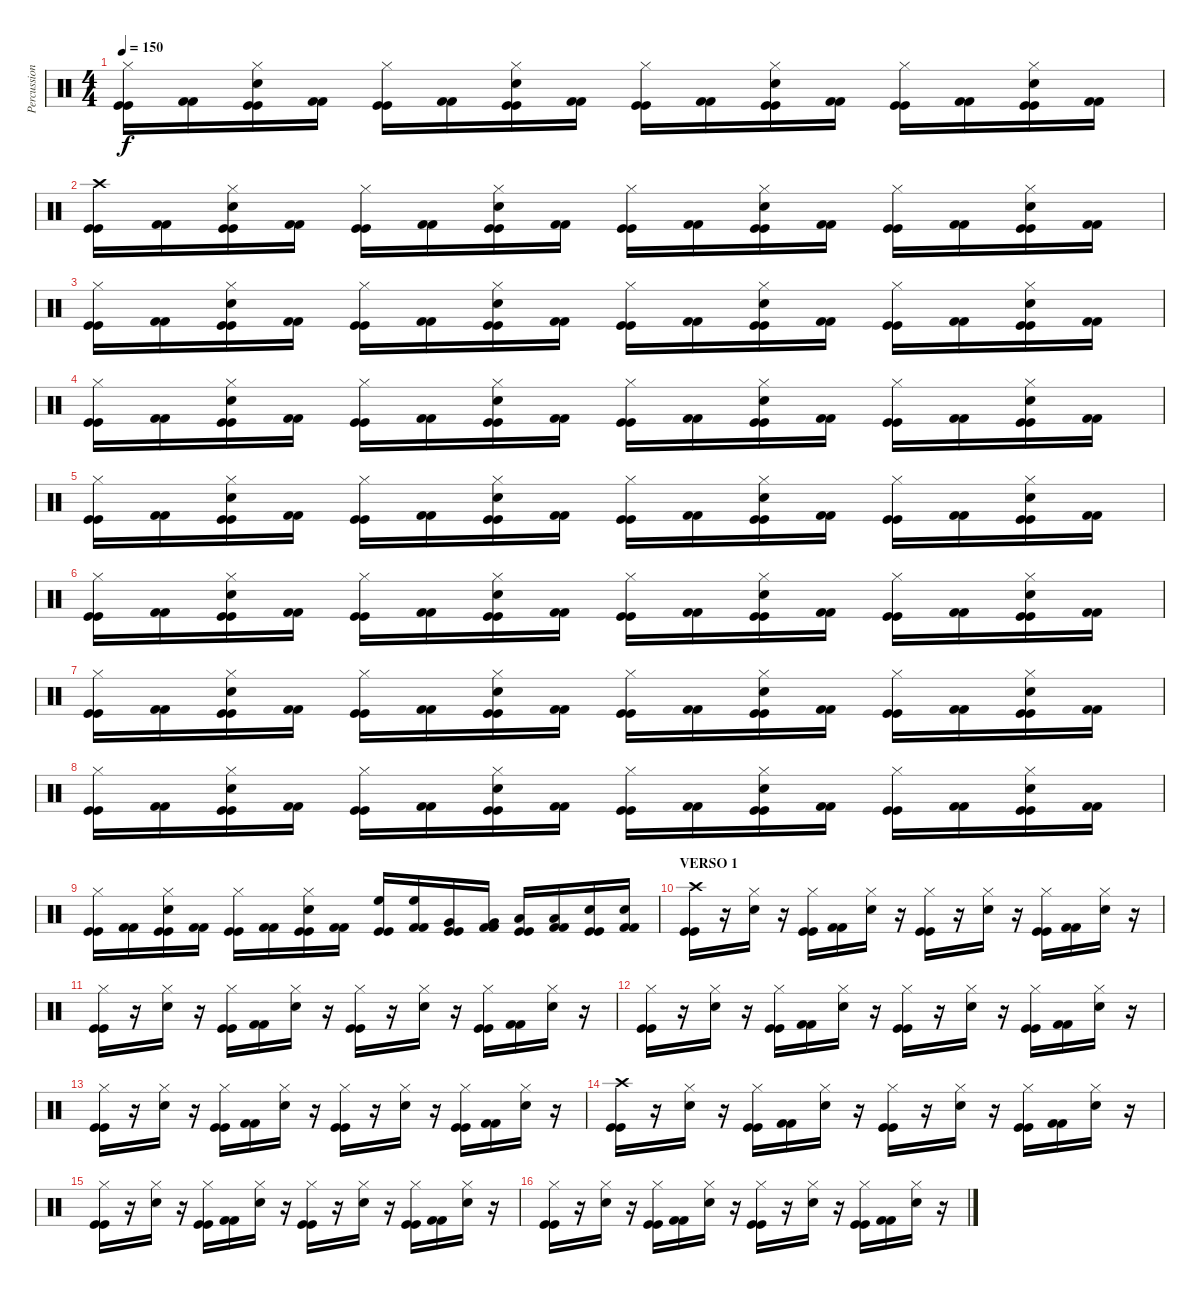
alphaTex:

\track ("Percussion" "Percussion") {instrument percussion}
\staff {score}
\articulation defaults
\ts (4 4)
\tempo 150
\clef neutral
\ks c
("Hi-Hat (closed)" "Kick (hit)" "Kick (hit)").16{dy f} ("Kick (hit) 2" "Kick (hit) 2").16 ("Hi-Hat (closed)" "Electric Snare (hit)" "Kick (hit)" "Kick (hit)").16 ("Kick (hit) 2" "Kick (hit) 2").16 ("Hi-Hat (closed)" "Kick (hit)" "Kick (hit)").16 ("Kick (hit) 2" "Kick (hit) 2").16 ("Hi-Hat (closed)" "Electric Snare (hit)" "Kick (hit)" "Kick (hit)").16 ("Kick (hit) 2" "Kick (hit) 2").16 ("Hi-Hat (closed)" "Kick (hit)" "Kick (hit)").16 ("Kick (hit) 2" "Kick (hit) 2").16 ("Hi-Hat (closed)" "Electric Snare (hit)" "Kick (hit)" "Kick (hit)").16 ("Kick (hit) 2" "Kick (hit) 2").16 ("Hi-Hat (closed)" "Kick (hit)" "Kick (hit)").16 ("Kick (hit) 2" "Kick (hit) 2").16 ("Hi-Hat (closed)" "Electric Snare (hit)" "Kick (hit)" "Kick (hit)").16 ("Kick (hit) 2" "Kick (hit) 2").16 |
("Crash high (hit)" "Kick (hit)" "Kick (hit)").16 ("Kick (hit) 2" "Kick (hit) 2").16 ("Hi-Hat (closed)" "Electric Snare (hit)" "Kick (hit)" "Kick (hit)").16 ("Kick (hit) 2" "Kick (hit) 2").16 ("Hi-Hat (closed)" "Kick (hit)" "Kick (hit)").16 ("Kick (hit) 2" "Kick (hit) 2").16 ("Hi-Hat (closed)" "Electric Snare (hit)" "Kick (hit)" "Kick (hit)").16 ("Kick (hit) 2" "Kick (hit) 2").16 ("Hi-Hat (closed)" "Kick (hit)" "Kick (hit)").16 ("Kick (hit) 2" "Kick (hit) 2").16 ("Hi-Hat (closed)" "Electric Snare (hit)" "Kick (hit)" "Kick (hit)").16 ("Kick (hit) 2" "Kick (hit) 2").16 ("Hi-Hat (closed)" "Kick (hit)" "Kick (hit)").16 ("Kick (hit) 2" "Kick (hit) 2").16 ("Hi-Hat (closed)" "Electric Snare (hit)" "Kick (hit)" "Kick (hit)").16 ("Kick (hit) 2" "Kick (hit) 2").16 |
("Hi-Hat (closed)" "Kick (hit)" "Kick (hit)").16 ("Kick (hit) 2" "Kick (hit) 2").16 ("Hi-Hat (closed)" "Electric Snare (hit)" "Kick (hit)" "Kick (hit)").16 ("Kick (hit) 2" "Kick (hit) 2").16 ("Hi-Hat (closed)" "Kick (hit)" "Kick (hit)").16 ("Kick (hit) 2" "Kick (hit) 2").16 ("Hi-Hat (closed)" "Electric Snare (hit)" "Kick (hit)" "Kick (hit)").16 ("Kick (hit) 2" "Kick (hit) 2").16 ("Hi-Hat (closed)" "Kick (hit)" "Kick (hit)").16 ("Kick (hit) 2" "Kick (hit) 2").16 ("Hi-Hat (closed)" "Electric Snare (hit)" "Kick (hit)" "Kick (hit)").16 ("Kick (hit) 2" "Kick (hit) 2").16 ("Hi-Hat (closed)" "Kick (hit)" "Kick (hit)").16 ("Kick (hit) 2" "Kick (hit) 2").16 ("Hi-Hat (closed)" "Electric Snare (hit)" "Kick (hit)" "Kick (hit)").16 ("Kick (hit) 2" "Kick (hit) 2").16 |
("Hi-Hat (closed)" "Kick (hit)" "Kick (hit)").16 ("Kick (hit) 2" "Kick (hit) 2").16 ("Hi-Hat (closed)" "Electric Snare (hit)" "Kick (hit)" "Kick (hit)").16 ("Kick (hit) 2" "Kick (hit) 2").16 ("Hi-Hat (closed)" "Kick (hit)" "Kick (hit)").16 ("Kick (hit) 2" "Kick (hit) 2").16 ("Hi-Hat (closed)" "Electric Snare (hit)" "Kick (hit)" "Kick (hit)").16 ("Kick (hit) 2" "Kick (hit) 2").16 ("Hi-Hat (closed)" "Kick (hit)" "Kick (hit)").16 ("Kick (hit) 2" "Kick (hit) 2").16 ("Hi-Hat (closed)" "Electric Snare (hit)" "Kick (hit)" "Kick (hit)").16 ("Kick (hit) 2" "Kick (hit) 2").16 ("Hi-Hat (closed)" "Kick (hit)" "Kick (hit)").16 ("Kick (hit) 2" "Kick (hit) 2").16 ("Hi-Hat (closed)" "Electric Snare (hit)" "Kick (hit)" "Kick (hit)").16 ("Kick (hit) 2" "Kick (hit) 2").16 |
("Hi-Hat (closed)" "Kick (hit)" "Kick (hit)").16 ("Kick (hit) 2" "Kick (hit) 2").16 ("Hi-Hat (closed)" "Electric Snare (hit)" "Kick (hit)" "Kick (hit)").16 ("Kick (hit) 2" "Kick (hit) 2").16 ("Hi-Hat (closed)" "Kick (hit)" "Kick (hit)").16 ("Kick (hit) 2" "Kick (hit) 2").16 ("Hi-Hat (closed)" "Electric Snare (hit)" "Kick (hit)" "Kick (hit)").16 ("Kick (hit) 2" "Kick (hit) 2").16 ("Hi-Hat (closed)" "Kick (hit)" "Kick (hit)").16 ("Kick (hit) 2" "Kick (hit) 2").16 ("Hi-Hat (closed)" "Electric Snare (hit)" "Kick (hit)" "Kick (hit)").16 ("Kick (hit) 2" "Kick (hit) 2").16 ("Hi-Hat (closed)" "Kick (hit)" "Kick (hit)").16 ("Kick (hit) 2" "Kick (hit) 2").16 ("Hi-Hat (closed)" "Electric Snare (hit)" "Kick (hit)" "Kick (hit)").16 ("Kick (hit) 2" "Kick (hit) 2").16 |
("Hi-Hat (closed)" "Kick (hit)" "Kick (hit)").16 ("Kick (hit) 2" "Kick (hit) 2").16 ("Hi-Hat (closed)" "Electric Snare (hit)" "Kick (hit)" "Kick (hit)").16 ("Kick (hit) 2" "Kick (hit) 2").16 ("Hi-Hat (closed)" "Kick (hit)" "Kick (hit)").16 ("Kick (hit) 2" "Kick (hit) 2").16 ("Hi-Hat (closed)" "Electric Snare (hit)" "Kick (hit)" "Kick (hit)").16 ("Kick (hit) 2" "Kick (hit) 2").16 ("Hi-Hat (closed)" "Kick (hit)" "Kick (hit)").16 ("Kick (hit) 2" "Kick (hit) 2").16 ("Hi-Hat (closed)" "Electric Snare (hit)" "Kick (hit)" "Kick (hit)").16 ("Kick (hit) 2" "Kick (hit) 2").16 ("Hi-Hat (closed)" "Kick (hit)" "Kick (hit)").16 ("Kick (hit) 2" "Kick (hit) 2").16 ("Hi-Hat (closed)" "Electric Snare (hit)" "Kick (hit)" "Kick (hit)").16 ("Kick (hit) 2" "Kick (hit) 2").16 |
("Hi-Hat (closed)" "Kick (hit)" "Kick (hit)").16 ("Kick (hit) 2" "Kick (hit) 2").16 ("Hi-Hat (closed)" "Electric Snare (hit)" "Kick (hit)" "Kick (hit)").16 ("Kick (hit) 2" "Kick (hit) 2").16 ("Hi-Hat (closed)" "Kick (hit)" "Kick (hit)").16 ("Kick (hit) 2" "Kick (hit) 2").16 ("Hi-Hat (closed)" "Electric Snare (hit)" "Kick (hit)" "Kick (hit)").16 ("Kick (hit) 2" "Kick (hit) 2").16 ("Hi-Hat (closed)" "Kick (hit)" "Kick (hit)").16 ("Kick (hit) 2" "Kick (hit) 2").16 ("Hi-Hat (closed)" "Electric Snare (hit)" "Kick (hit)" "Kick (hit)").16 ("Kick (hit) 2" "Kick (hit) 2").16 ("Hi-Hat (closed)" "Kick (hit)" "Kick (hit)").16 ("Kick (hit) 2" "Kick (hit) 2").16 ("Hi-Hat (closed)" "Electric Snare (hit)" "Kick (hit)" "Kick (hit)").16 ("Kick (hit) 2" "Kick (hit) 2").16 |
("Hi-Hat (closed)" "Kick (hit)" "Kick (hit)").16 ("Kick (hit) 2" "Kick (hit) 2").16 ("Hi-Hat (closed)" "Electric Snare (hit)" "Kick (hit)" "Kick (hit)").16 ("Kick (hit) 2" "Kick (hit) 2").16 ("Hi-Hat (closed)" "Kick (hit)" "Kick (hit)").16 ("Kick (hit) 2" "Kick (hit) 2").16 ("Hi-Hat (closed)" "Electric Snare (hit)" "Kick (hit)" "Kick (hit)").16 ("Kick (hit) 2" "Kick (hit) 2").16 ("Hi-Hat (closed)" "Kick (hit)" "Kick (hit)").16 ("Kick (hit) 2" "Kick (hit) 2").16 ("Hi-Hat (closed)" "Electric Snare (hit)" "Kick (hit)" "Kick (hit)").16 ("Kick (hit) 2" "Kick (hit) 2").16 ("Hi-Hat (closed)" "Kick (hit)" "Kick (hit)").16 ("Kick (hit) 2" "Kick (hit) 2").16 ("Hi-Hat (closed)" "Electric Snare (hit)" "Kick (hit)" "Kick (hit)").16 ("Kick (hit) 2" "Kick (hit) 2").16 |
("Hi-Hat (closed)" "Kick (hit)" "Kick (hit)").16 ("Kick (hit) 2" "Kick (hit) 2").16 ("Hi-Hat (closed)" "Electric Snare (hit)" "Kick (hit)" "Kick (hit)").16 ("Kick (hit) 2" "Kick (hit) 2").16 ("Hi-Hat (closed)" "Kick (hit)" "Kick (hit)").16 ("Kick (hit) 2" "Kick (hit) 2").16 ("Hi-Hat (closed)" "Electric Snare (hit)" "Kick (hit)" "Kick (hit)").16 ("Kick (hit) 2" "Kick (hit) 2").16 ("High Floor Tom (hit)" "Kick (hit)" "Kick (hit)").16 ("High Floor Tom (hit)" "Kick (hit) 2" "Kick (hit) 2").16 ("Very Low Tom (hit)" "Kick (hit)" "Kick (hit)").16 ("Very Low Tom (hit)" "Kick (hit) 2" "Kick (hit) 2").16 ("Low Tom (hit)" "Kick (hit)" "Kick (hit)").16 ("Low Tom (hit)" "Kick (hit) 2" "Kick (hit) 2").16 ("Electric Snare (hit)" "Kick (hit)" "Kick (hit)").16 ("Electric Snare (hit)" "Kick (hit) 2" "Kick (hit) 2").16 |
\section ("" "VERSO 1")
("Crash high (hit)" "Kick (hit)" "Kick (hit)").16 r.16 ("Hi-Hat (closed)" "Electric Snare (hit)").16 r.16 ("Hi-Hat (closed)" "Kick (hit)" "Kick (hit)").16 ("Kick (hit) 2" "Kick (hit) 2").16 ("Hi-Hat (closed)" "Electric Snare (hit)").16 r.16 ("Hi-Hat (closed)" "Kick (hit)" "Kick (hit)").16 r.16 ("Hi-Hat (closed)" "Electric Snare (hit)").16 r.16 ("Hi-Hat (closed)" "Kick (hit)" "Kick (hit)").16 ("Kick (hit) 2" "Kick (hit) 2").16 ("Hi-Hat (closed)" "Electric Snare (hit)").16 r.16 |
("Hi-Hat (closed)" "Kick (hit)" "Kick (hit)").16 r.16 ("Hi-Hat (closed)" "Electric Snare (hit)").16 r.16 ("Hi-Hat (closed)" "Kick (hit)" "Kick (hit)").16 ("Kick (hit) 2" "Kick (hit) 2").16 ("Hi-Hat (closed)" "Electric Snare (hit)").16 r.16 ("Hi-Hat (closed)" "Kick (hit)" "Kick (hit)").16 r.16 ("Hi-Hat (closed)" "Electric Snare (hit)").16 r.16 ("Hi-Hat (closed)" "Kick (hit)" "Kick (hit)").16 ("Kick (hit) 2" "Kick (hit) 2").16 ("Hi-Hat (closed)" "Electric Snare (hit)").16 r.16 |
("Hi-Hat (closed)" "Kick (hit)" "Kick (hit)").16 r.16 ("Hi-Hat (closed)" "Electric Snare (hit)").16 r.16 ("Hi-Hat (closed)" "Kick (hit)" "Kick (hit)").16 ("Kick (hit) 2" "Kick (hit) 2").16 ("Hi-Hat (closed)" "Electric Snare (hit)").16 r.16 ("Hi-Hat (closed)" "Kick (hit)" "Kick (hit)").16 r.16 ("Hi-Hat (closed)" "Electric Snare (hit)").16 r.16 ("Hi-Hat (closed)" "Kick (hit)" "Kick (hit)").16 ("Kick (hit) 2" "Kick (hit) 2").16 ("Hi-Hat (closed)" "Electric Snare (hit)").16 r.16 |
("Hi-Hat (closed)" "Kick (hit)" "Kick (hit)").16 r.16 ("Hi-Hat (closed)" "Electric Snare (hit)").16 r.16 ("Hi-Hat (closed)" "Kick (hit)" "Kick (hit)").16 ("Kick (hit) 2" "Kick (hit) 2").16 ("Hi-Hat (closed)" "Electric Snare (hit)").16 r.16 ("Hi-Hat (closed)" "Kick (hit)" "Kick (hit)").16 r.16 ("Hi-Hat (closed)" "Electric Snare (hit)").16 r.16 ("Hi-Hat (closed)" "Kick (hit)" "Kick (hit)").16 ("Kick (hit) 2" "Kick (hit) 2").16 ("Hi-Hat (closed)" "Electric Snare (hit)").16 r.16 |
("Crash high (hit)" "Kick (hit)" "Kick (hit)").16 r.16 ("Hi-Hat (closed)" "Electric Snare (hit)").16 r.16 ("Hi-Hat (closed)" "Kick (hit)" "Kick (hit)").16 ("Kick (hit) 2" "Kick (hit) 2").16 ("Hi-Hat (closed)" "Electric Snare (hit)").16 r.16 ("Hi-Hat (closed)" "Kick (hit)" "Kick (hit)").16 r.16 ("Hi-Hat (closed)" "Electric Snare (hit)").16 r.16 ("Hi-Hat (closed)" "Kick (hit)" "Kick (hit)").16 ("Kick (hit) 2" "Kick (hit) 2").16 ("Hi-Hat (closed)" "Electric Snare (hit)").16 r.16 |
("Hi-Hat (closed)" "Kick (hit)" "Kick (hit)").16 r.16 ("Hi-Hat (closed)" "Electric Snare (hit)").16 r.16 ("Hi-Hat (closed)" "Kick (hit)" "Kick (hit)").16 ("Kick (hit) 2" "Kick (hit) 2").16 ("Hi-Hat (closed)" "Electric Snare (hit)").16 r.16 ("Hi-Hat (closed)" "Kick (hit)" "Kick (hit)").16 r.16 ("Hi-Hat (closed)" "Electric Snare (hit)").16 r.16 ("Hi-Hat (closed)" "Kick (hit)" "Kick (hit)").16 ("Kick (hit) 2" "Kick (hit) 2").16 ("Hi-Hat (closed)" "Electric Snare (hit)").16 r.16 |
("Hi-Hat (closed)" "Kick (hit)" "Kick (hit)").16 r.16 ("Hi-Hat (closed)" "Electric Snare (hit)").16 r.16 ("Hi-Hat (closed)" "Kick (hit)" "Kick (hit)").16 ("Kick (hit) 2" "Kick (hit) 2").16 ("Hi-Hat (closed)" "Electric Snare (hit)").16 r.16 ("Hi-Hat (closed)" "Kick (hit)" "Kick (hit)").16 r.16 ("Hi-Hat (closed)" "Electric Snare (hit)").16 r.16 ("Hi-Hat (closed)" "Kick (hit)" "Kick (hit)").16 ("Kick (hit) 2" "Kick (hit) 2").16 ("Hi-Hat (closed)" "Electric Snare (hit)").16 r.16
